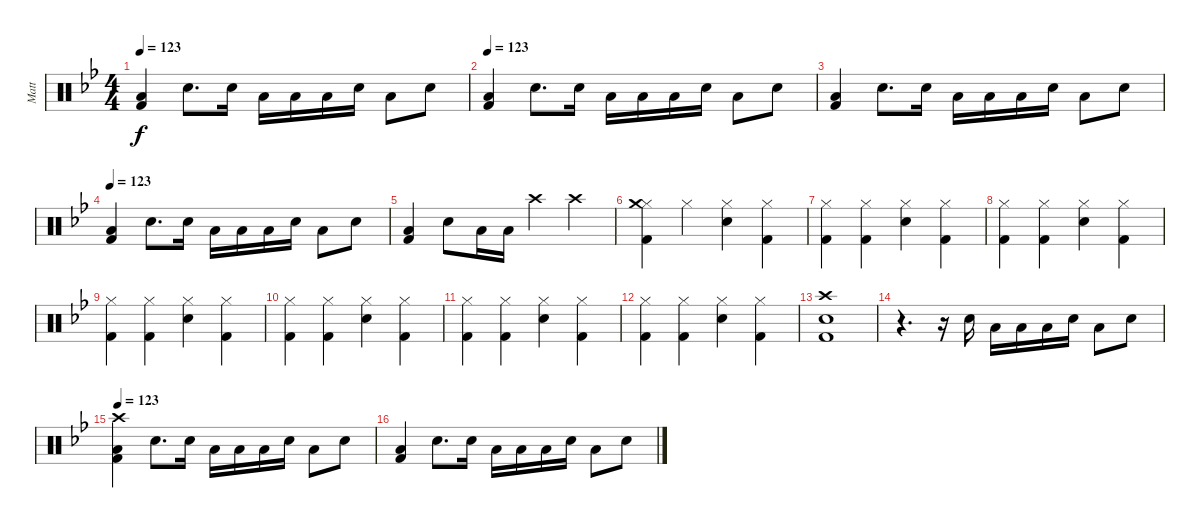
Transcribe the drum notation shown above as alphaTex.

\track ("Matt" "Matt") {instrument percussion}
\staff {score}
\articulation defaults
\ts (4 4)
\tempo 123
\clef neutral
\ks bb
("Low Floor Tom (hit)" "Kick (hit) 2").4{dy f} "Snare (hit) 2".8{d} "Snare (hit) 2".16 "Low Floor Tom (hit)".16 "Low Floor Tom (hit)".16 "Low Floor Tom (hit)".16 "Snare (hit) 2".16 "Low Floor Tom (hit)".8 "Snare (hit) 2".8 |
\tempo 123
("Low Floor Tom (hit)" "Kick (hit) 2").4 "Snare (hit) 2".8{d} "Snare (hit) 2".16 "Low Floor Tom (hit)".16 "Low Floor Tom (hit)".16 "Low Floor Tom (hit)".16 "Snare (hit) 2".16 "Low Floor Tom (hit)".8 "Snare (hit) 2".8 |
("Low Floor Tom (hit)" "Kick (hit) 2").4 "Snare (hit) 2".8{d} "Snare (hit) 2".16 "Low Floor Tom (hit)".16 "Low Floor Tom (hit)".16 "Low Floor Tom (hit)".16 "Snare (hit) 2".16 "Low Floor Tom (hit)".8 "Snare (hit) 2".8 |
\tempo 123
("Low Floor Tom (hit)" "Kick (hit) 2").4 "Snare (hit) 2".8{d} "Snare (hit) 2".16 "Low Floor Tom (hit)".16 "Low Floor Tom (hit)".16 "Low Floor Tom (hit)".16 "Snare (hit) 2".16 "Low Floor Tom (hit)".8 "Snare (hit) 2".8 |
("Low Floor Tom (hit)" "Kick (hit) 2").4 "Snare (hit) 2".8 "Low Floor Tom (hit)".16 "Low Floor Tom (hit)".16 "Crash high (hit)".4 "Crash high (hit)".4 |
("Hi-Hat (closed)" "Crash medium (hit)" "Kick (hit) 2").4 "Hi-Hat (closed)".4 ("Hi-Hat (closed)" "Snare (hit) 2").4 ("Hi-Hat (closed)" "Kick (hit) 2").4 |
("Hi-Hat (closed)" "Kick (hit) 2").4 ("Hi-Hat (closed)" "Kick (hit) 2").4 ("Hi-Hat (closed)" "Snare (hit) 2").4 ("Hi-Hat (closed)" "Kick (hit) 2").4 |
("Hi-Hat (closed)" "Kick (hit) 2").4 ("Hi-Hat (closed)" "Kick (hit) 2").4 ("Hi-Hat (closed)" "Snare (hit) 2").4 ("Hi-Hat (closed)" "Kick (hit) 2").4 |
("Hi-Hat (closed)" "Kick (hit) 2").4 ("Hi-Hat (closed)" "Kick (hit) 2").4 ("Hi-Hat (closed)" "Snare (hit) 2").4 ("Hi-Hat (closed)" "Kick (hit) 2").4 |
("Hi-Hat (closed)" "Kick (hit) 2").4 ("Hi-Hat (closed)" "Kick (hit) 2").4 ("Hi-Hat (closed)" "Snare (hit) 2").4 ("Hi-Hat (closed)" "Kick (hit) 2").4 |
("Hi-Hat (closed)" "Kick (hit) 2").4 ("Hi-Hat (closed)" "Kick (hit) 2").4 ("Hi-Hat (closed)" "Snare (hit) 2").4 ("Hi-Hat (closed)" "Kick (hit) 2").4 |
("Hi-Hat (closed)" "Kick (hit) 2").4 ("Hi-Hat (closed)" "Kick (hit) 2").4 ("Hi-Hat (closed)" "Snare (hit) 2").4 ("Hi-Hat (closed)" "Kick (hit) 2").4 |
("Kick (hit) 2" "Snare (hit) 2" "Crash high (hit)").1 |
r.4{d} r.16 "Snare (hit) 2".16 "Low Floor Tom (hit)".16 "Low Floor Tom (hit)".16 "Low Floor Tom (hit)".16 "Snare (hit) 2".16 "Low Floor Tom (hit)".8 "Snare (hit) 2".8 |
\tempo 123
("Low Floor Tom (hit)" "Kick (hit) 2" "Crash high (hit)").4 "Snare (hit) 2".8{d} "Snare (hit) 2".16 "Low Floor Tom (hit)".16 "Low Floor Tom (hit)".16 "Low Floor Tom (hit)".16 "Snare (hit) 2".16 "Low Floor Tom (hit)".8 "Snare (hit) 2".8 |
("Low Floor Tom (hit)" "Kick (hit) 2").4 "Snare (hit) 2".8{d} "Snare (hit) 2".16 "Low Floor Tom (hit)".16 "Low Floor Tom (hit)".16 "Low Floor Tom (hit)".16 "Snare (hit) 2".16 "Low Floor Tom (hit)".8 "Snare (hit) 2".8
